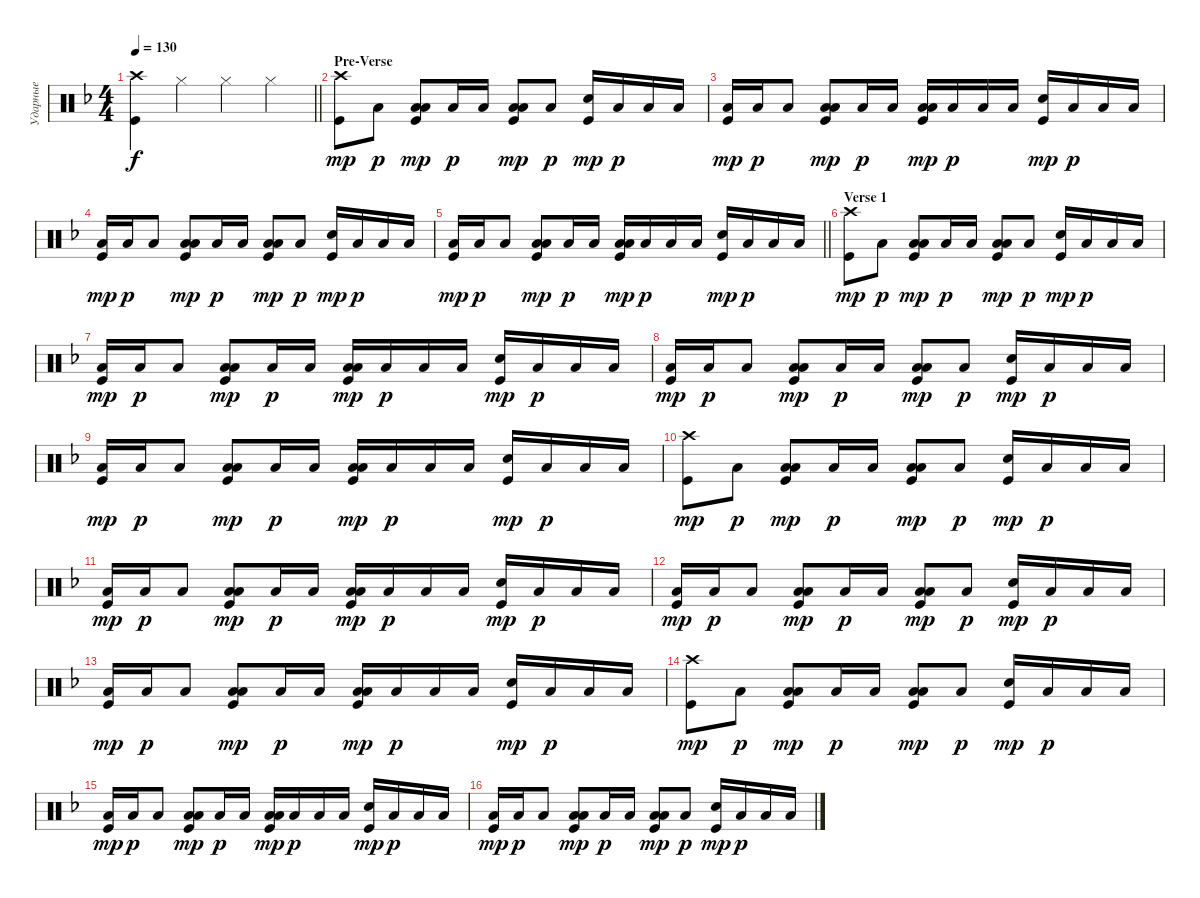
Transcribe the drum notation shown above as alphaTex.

\track ("Ударные" "Ударные") {instrument percussion}
\staff {score}
\articulation defaults
\ts (4 4)
\tempo 130
\clef neutral
\barLineRight lightlight
\ks dminor
("Kick (hit)" "Crash high (hit)").4{dy f} "Hi-Hat (closed)".4 "Hi-Hat (closed)".4 "Hi-Hat (closed)".4 |
\section ("" "Pre-Verse")
("Kick (hit)" "Crash high (hit)").8{dy mp} "Low Tom (hit)".8{dy p} ("Low Tom (hit)" "Kick (hit)" "Low Tom (hit)").8{bd 240 dy mp} "Low Tom (hit)".16{dy p} "Low Tom (hit)".16 ("Low Tom (hit)" "Kick (hit)" "Low Tom (hit)").8{bd 240 dy mp} "Low Tom (hit)".8{dy p} ("Kick (hit)" "Snare (hit) 2").16{dy mp} "Low Tom (hit)".16{dy p} "Low Tom (hit)".16 "Low Tom (hit)".16 |
("Low Tom (hit)" "Kick (hit)").16{dy mp} "Low Tom (hit)".16{dy p} "Low Tom (hit)".8{bd 240} ("Low Tom (hit)" "Kick (hit)" "Low Tom (hit)").8{bd 240 dy mp} "Low Tom (hit)".16{dy p} "Low Tom (hit)".16 ("Low Tom (hit)" "Kick (hit)" "Low Tom (hit)").16{bd 240 dy mp} "Low Tom (hit)".16{dy p} "Low Tom (hit)".16 "Low Tom (hit)".16 ("Kick (hit)" "Snare (hit) 2").16{dy mp} "Low Tom (hit)".16{dy p} "Low Tom (hit)".16 "Low Tom (hit)".16 |
("Low Tom (hit)" "Kick (hit)").16{dy mp} "Low Tom (hit)".16{dy p} "Low Tom (hit)".8{bd 240} ("Low Tom (hit)" "Kick (hit)" "Low Tom (hit)").8{bd 240 dy mp} "Low Tom (hit)".16{dy p} "Low Tom (hit)".16 ("Low Tom (hit)" "Kick (hit)" "Low Tom (hit)").8{bd 240 dy mp} "Low Tom (hit)".8{dy p} ("Kick (hit)" "Snare (hit) 2").16{dy mp} "Low Tom (hit)".16{dy p} "Low Tom (hit)".16 "Low Tom (hit)".16 |
\barLineRight lightlight
("Low Tom (hit)" "Kick (hit)").16{dy mp} "Low Tom (hit)".16{dy p} "Low Tom (hit)".8{bd 240} ("Low Tom (hit)" "Kick (hit)" "Low Tom (hit)").8{bd 240 dy mp} "Low Tom (hit)".16{dy p} "Low Tom (hit)".16 ("Low Tom (hit)" "Kick (hit)" "Low Tom (hit)").16{bd 240 dy mp} "Low Tom (hit)".16{dy p} "Low Tom (hit)".16 "Low Tom (hit)".16 ("Kick (hit)" "Snare (hit) 2").16{dy mp} "Low Tom (hit)".16{dy p} "Low Tom (hit)".16 "Low Tom (hit)".16 |
\section ("" "Verse 1")
("Kick (hit)" "Crash high (hit)").8{dy mp} "Low Tom (hit)".8{dy p} ("Low Tom (hit)" "Kick (hit)" "Low Tom (hit)").8{bd 240 dy mp} "Low Tom (hit)".16{dy p} "Low Tom (hit)".16 ("Low Tom (hit)" "Kick (hit)" "Low Tom (hit)").8{bd 240 dy mp} "Low Tom (hit)".8{dy p} ("Kick (hit)" "Snare (hit) 2").16{dy mp} "Low Tom (hit)".16{dy p} "Low Tom (hit)".16 "Low Tom (hit)".16 |
("Low Tom (hit)" "Kick (hit)").16{dy mp} "Low Tom (hit)".16{dy p} "Low Tom (hit)".8{bd 240} ("Low Tom (hit)" "Kick (hit)" "Low Tom (hit)").8{bd 240 dy mp} "Low Tom (hit)".16{dy p} "Low Tom (hit)".16 ("Low Tom (hit)" "Kick (hit)" "Low Tom (hit)").16{bd 240 dy mp} "Low Tom (hit)".16{dy p} "Low Tom (hit)".16 "Low Tom (hit)".16 ("Kick (hit)" "Snare (hit) 2").16{dy mp} "Low Tom (hit)".16{dy p} "Low Tom (hit)".16 "Low Tom (hit)".16 |
("Low Tom (hit)" "Kick (hit)").16{dy mp} "Low Tom (hit)".16{dy p} "Low Tom (hit)".8{bd 240} ("Low Tom (hit)" "Kick (hit)" "Low Tom (hit)").8{bd 240 dy mp} "Low Tom (hit)".16{dy p} "Low Tom (hit)".16 ("Low Tom (hit)" "Kick (hit)" "Low Tom (hit)").8{bd 240 dy mp} "Low Tom (hit)".8{dy p} ("Kick (hit)" "Snare (hit) 2").16{dy mp} "Low Tom (hit)".16{dy p} "Low Tom (hit)".16 "Low Tom (hit)".16 |
("Low Tom (hit)" "Kick (hit)").16{dy mp} "Low Tom (hit)".16{dy p} "Low Tom (hit)".8{bd 240} ("Low Tom (hit)" "Kick (hit)" "Low Tom (hit)").8{bd 240 dy mp} "Low Tom (hit)".16{dy p} "Low Tom (hit)".16 ("Low Tom (hit)" "Kick (hit)" "Low Tom (hit)").16{bd 240 dy mp} "Low Tom (hit)".16{dy p} "Low Tom (hit)".16 "Low Tom (hit)".16 ("Kick (hit)" "Snare (hit) 2").16{dy mp} "Low Tom (hit)".16{dy p} "Low Tom (hit)".16 "Low Tom (hit)".16 |
("Kick (hit)" "Crash high (hit)").8{dy mp} "Low Tom (hit)".8{dy p} ("Low Tom (hit)" "Kick (hit)" "Low Tom (hit)").8{bd 240 dy mp} "Low Tom (hit)".16{dy p} "Low Tom (hit)".16 ("Low Tom (hit)" "Kick (hit)" "Low Tom (hit)").8{bd 240 dy mp} "Low Tom (hit)".8{dy p} ("Kick (hit)" "Snare (hit) 2").16{dy mp} "Low Tom (hit)".16{dy p} "Low Tom (hit)".16 "Low Tom (hit)".16 |
("Low Tom (hit)" "Kick (hit)").16{dy mp} "Low Tom (hit)".16{dy p} "Low Tom (hit)".8{bd 240} ("Low Tom (hit)" "Kick (hit)" "Low Tom (hit)").8{bd 240 dy mp} "Low Tom (hit)".16{dy p} "Low Tom (hit)".16 ("Low Tom (hit)" "Kick (hit)" "Low Tom (hit)").16{bd 240 dy mp} "Low Tom (hit)".16{dy p} "Low Tom (hit)".16 "Low Tom (hit)".16 ("Kick (hit)" "Snare (hit) 2").16{dy mp} "Low Tom (hit)".16{dy p} "Low Tom (hit)".16 "Low Tom (hit)".16 |
("Low Tom (hit)" "Kick (hit)").16{dy mp} "Low Tom (hit)".16{dy p} "Low Tom (hit)".8{bd 240} ("Low Tom (hit)" "Kick (hit)" "Low Tom (hit)").8{bd 240 dy mp} "Low Tom (hit)".16{dy p} "Low Tom (hit)".16 ("Low Tom (hit)" "Kick (hit)" "Low Tom (hit)").8{bd 240 dy mp} "Low Tom (hit)".8{dy p} ("Kick (hit)" "Snare (hit) 2").16{dy mp} "Low Tom (hit)".16{dy p} "Low Tom (hit)".16 "Low Tom (hit)".16 |
("Low Tom (hit)" "Kick (hit)").16{dy mp} "Low Tom (hit)".16{dy p} "Low Tom (hit)".8{bd 240} ("Low Tom (hit)" "Kick (hit)" "Low Tom (hit)").8{bd 240 dy mp} "Low Tom (hit)".16{dy p} "Low Tom (hit)".16 ("Low Tom (hit)" "Kick (hit)" "Low Tom (hit)").16{bd 240 dy mp} "Low Tom (hit)".16{dy p} "Low Tom (hit)".16 "Low Tom (hit)".16 ("Kick (hit)" "Snare (hit) 2").16{dy mp} "Low Tom (hit)".16{dy p} "Low Tom (hit)".16 "Low Tom (hit)".16 |
("Kick (hit)" "Crash high (hit)").8{dy mp} "Low Tom (hit)".8{dy p} ("Low Tom (hit)" "Kick (hit)" "Low Tom (hit)").8{bd 240 dy mp} "Low Tom (hit)".16{dy p} "Low Tom (hit)".16 ("Low Tom (hit)" "Kick (hit)" "Low Tom (hit)").8{bd 240 dy mp} "Low Tom (hit)".8{dy p} ("Kick (hit)" "Snare (hit) 2").16{dy mp} "Low Tom (hit)".16{dy p} "Low Tom (hit)".16 "Low Tom (hit)".16 |
("Low Tom (hit)" "Kick (hit)").16{dy mp} "Low Tom (hit)".16{dy p} "Low Tom (hit)".8{bd 240} ("Low Tom (hit)" "Kick (hit)" "Low Tom (hit)").8{bd 240 dy mp} "Low Tom (hit)".16{dy p} "Low Tom (hit)".16 ("Low Tom (hit)" "Kick (hit)" "Low Tom (hit)").16{bd 240 dy mp} "Low Tom (hit)".16{dy p} "Low Tom (hit)".16 "Low Tom (hit)".16 ("Kick (hit)" "Snare (hit) 2").16{dy mp} "Low Tom (hit)".16{dy p} "Low Tom (hit)".16 "Low Tom (hit)".16 |
("Low Tom (hit)" "Kick (hit)").16{dy mp} "Low Tom (hit)".16{dy p} "Low Tom (hit)".8{bd 240} ("Low Tom (hit)" "Kick (hit)" "Low Tom (hit)").8{bd 240 dy mp} "Low Tom (hit)".16{dy p} "Low Tom (hit)".16 ("Low Tom (hit)" "Kick (hit)" "Low Tom (hit)").8{bd 240 dy mp} "Low Tom (hit)".8{dy p} ("Kick (hit)" "Snare (hit) 2").16{dy mp} "Low Tom (hit)".16{dy p} "Low Tom (hit)".16 "Low Tom (hit)".16
